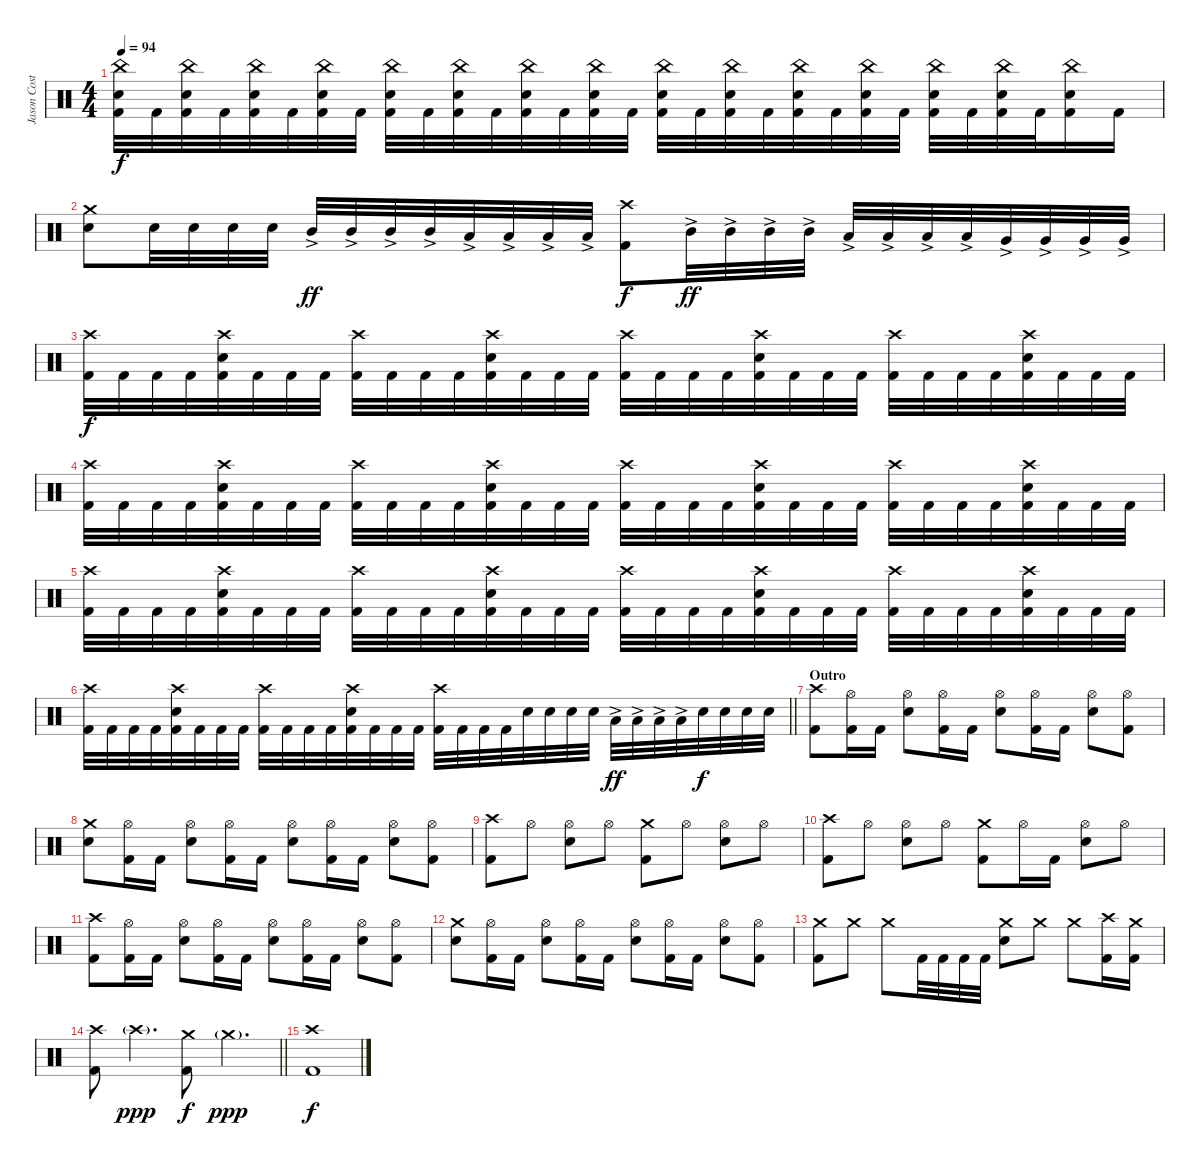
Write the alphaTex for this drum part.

\track ("Jason Costa" "Jason Cost") {instrument percussion}
\staff {score}
\articulation defaults
\ts (4 4)
\tempo 94
\clef neutral
\ks c
("China (hit)" "Snare (hit) 2" "Kick (hit) 2").32{dy f} "Kick (hit) 2".32 ("China (hit)" "Snare (hit) 2" "Kick (hit) 2").32 "Kick (hit) 2".32 ("China (hit)" "Snare (hit) 2" "Kick (hit) 2").32 "Kick (hit) 2".32 ("China (hit)" "Snare (hit) 2" "Kick (hit) 2").32 "Kick (hit) 2".32 ("China (hit)" "Snare (hit) 2" "Kick (hit) 2").32 "Kick (hit) 2".32 ("China (hit)" "Snare (hit) 2" "Kick (hit) 2").32 "Kick (hit) 2".32 ("China (hit)" "Snare (hit) 2" "Kick (hit) 2").32 "Kick (hit) 2".32 ("China (hit)" "Snare (hit) 2" "Kick (hit) 2").32 "Kick (hit) 2".32 ("China (hit)" "Snare (hit) 2" "Kick (hit) 2").32 "Kick (hit) 2".32 ("China (hit)" "Snare (hit) 2" "Kick (hit) 2").32 "Kick (hit) 2".32 ("China (hit)" "Snare (hit) 2" "Kick (hit) 2").32 "Kick (hit) 2".32 ("China (hit)" "Snare (hit) 2" "Kick (hit) 2").32 "Kick (hit) 2".32 ("China (hit)" "Snare (hit) 2" "Kick (hit) 2").32 "Kick (hit) 2".32 ("China (hit)" "Snare (hit) 2" "Kick (hit) 2").32 "Kick (hit) 2".32 ("China (hit)" "Snare (hit) 2" "Kick (hit) 2").16 "Kick (hit) 2".16 |
("Crash medium (hit)" "Snare (hit) 2").8 "Snare (hit) 2".32 "Snare (hit) 2".32 "Snare (hit) 2".32 "Snare (hit) 2".32 "Mid Tom (hit)"{ac}.32{dy ff} "Mid Tom (hit)"{ac}.32 "Mid Tom (hit)"{ac}.32 "Mid Tom (hit)"{ac}.32 "Low Tom (hit)"{ac}.32 "Low Tom (hit)"{ac}.32 "Low Tom (hit)"{ac}.32 "Low Tom (hit)"{ac}.32 ("Crash high (hit)" "Kick (hit) 2").8{dy f} "Mid Tom (hit)"{ac}.32{dy ff} "Mid Tom (hit)"{ac}.32 "Mid Tom (hit)"{ac}.32 "Mid Tom (hit)"{ac}.32 "Low Tom (hit)"{ac}.32 "Low Tom (hit)"{ac}.32 "Low Tom (hit)"{ac}.32 "Low Tom (hit)"{ac}.32 "Very Low Tom (hit)"{ac}.32 "Very Low Tom (hit)"{ac}.32 "Very Low Tom (hit)"{ac}.32 "Very Low Tom (hit)"{ac}.32 |
("Crash high (hit)" "Kick (hit) 2").32{dy f} "Kick (hit) 2".32 "Kick (hit) 2".32 "Kick (hit) 2".32 ("Crash high (hit)" "Snare (hit) 2" "Kick (hit) 2").32 "Kick (hit) 2".32 "Kick (hit) 2".32 "Kick (hit) 2".32 ("Crash high (hit)" "Kick (hit) 2").32 "Kick (hit) 2".32 "Kick (hit) 2".32 "Kick (hit) 2".32 ("Crash high (hit)" "Snare (hit) 2" "Kick (hit) 2").32 "Kick (hit) 2".32 "Kick (hit) 2".32 "Kick (hit) 2".32 ("Crash high (hit)" "Kick (hit) 2").32 "Kick (hit) 2".32 "Kick (hit) 2".32 "Kick (hit) 2".32 ("Crash high (hit)" "Snare (hit) 2" "Kick (hit) 2").32 "Kick (hit) 2".32 "Kick (hit) 2".32 "Kick (hit) 2".32 ("Crash high (hit)" "Kick (hit) 2").32 "Kick (hit) 2".32 "Kick (hit) 2".32 "Kick (hit) 2".32 ("Crash high (hit)" "Snare (hit) 2" "Kick (hit) 2").32 "Kick (hit) 2".32 "Kick (hit) 2".32 "Kick (hit) 2".32 |
("Crash high (hit)" "Kick (hit) 2").32 "Kick (hit) 2".32 "Kick (hit) 2".32 "Kick (hit) 2".32 ("Crash high (hit)" "Snare (hit) 2" "Kick (hit) 2").32 "Kick (hit) 2".32 "Kick (hit) 2".32 "Kick (hit) 2".32 ("Crash high (hit)" "Kick (hit) 2").32 "Kick (hit) 2".32 "Kick (hit) 2".32 "Kick (hit) 2".32 ("Crash high (hit)" "Snare (hit) 2" "Kick (hit) 2").32 "Kick (hit) 2".32 "Kick (hit) 2".32 "Kick (hit) 2".32 ("Crash high (hit)" "Kick (hit) 2").32 "Kick (hit) 2".32 "Kick (hit) 2".32 "Kick (hit) 2".32 ("Crash high (hit)" "Snare (hit) 2" "Kick (hit) 2").32 "Kick (hit) 2".32 "Kick (hit) 2".32 "Kick (hit) 2".32 ("Crash high (hit)" "Kick (hit) 2").32 "Kick (hit) 2".32 "Kick (hit) 2".32 "Kick (hit) 2".32 ("Crash high (hit)" "Snare (hit) 2" "Kick (hit) 2").32 "Kick (hit) 2".32 "Kick (hit) 2".32 "Kick (hit) 2".32 |
("Crash high (hit)" "Kick (hit) 2").32 "Kick (hit) 2".32 "Kick (hit) 2".32 "Kick (hit) 2".32 ("Crash high (hit)" "Snare (hit) 2" "Kick (hit) 2").32 "Kick (hit) 2".32 "Kick (hit) 2".32 "Kick (hit) 2".32 ("Crash high (hit)" "Kick (hit) 2").32 "Kick (hit) 2".32 "Kick (hit) 2".32 "Kick (hit) 2".32 ("Crash high (hit)" "Snare (hit) 2" "Kick (hit) 2").32 "Kick (hit) 2".32 "Kick (hit) 2".32 "Kick (hit) 2".32 ("Crash high (hit)" "Kick (hit) 2").32 "Kick (hit) 2".32 "Kick (hit) 2".32 "Kick (hit) 2".32 ("Crash high (hit)" "Snare (hit) 2" "Kick (hit) 2").32 "Kick (hit) 2".32 "Kick (hit) 2".32 "Kick (hit) 2".32 ("Crash high (hit)" "Kick (hit) 2").32 "Kick (hit) 2".32 "Kick (hit) 2".32 "Kick (hit) 2".32 ("Crash high (hit)" "Snare (hit) 2" "Kick (hit) 2").32 "Kick (hit) 2".32 "Kick (hit) 2".32 "Kick (hit) 2".32 |
\barLineRight lightlight
("Crash high (hit)" "Kick (hit) 2").32 "Kick (hit) 2".32 "Kick (hit) 2".32 "Kick (hit) 2".32 ("Crash high (hit)" "Snare (hit) 2" "Kick (hit) 2").32 "Kick (hit) 2".32 "Kick (hit) 2".32 "Kick (hit) 2".32 ("Crash high (hit)" "Kick (hit) 2").32 "Kick (hit) 2".32 "Kick (hit) 2".32 "Kick (hit) 2".32 ("Crash high (hit)" "Snare (hit) 2" "Kick (hit) 2").32 "Kick (hit) 2".32 "Kick (hit) 2".32 "Kick (hit) 2".32 ("Crash high (hit)" "Kick (hit) 2").32 "Kick (hit) 2".32 "Kick (hit) 2".32 "Kick (hit) 2".32 "Snare (hit) 2".32 "Snare (hit) 2".32 "Snare (hit) 2".32 "Snare (hit) 2".32 "Low Tom (hit)"{ac}.32{dy ff} "Low Tom (hit)"{ac}.32 "Low Tom (hit)"{ac}.32 "Low Tom (hit)"{ac}.32 "Snare (hit) 2".32{dy f} "Snare (hit) 2".32 "Snare (hit) 2".32 "Snare (hit) 2".32 |
\section ("" "Outro")
("Crash high (hit)" "Kick (hit) 2").8 ("Hi-Hat (open)" "Kick (hit) 2").16 "Kick (hit) 2".16 ("Snare (hit) 2" "Hi-Hat (open)").8 ("Hi-Hat (open)" "Kick (hit) 2").16 "Kick (hit) 2".16 ("Snare (hit) 2" "Hi-Hat (open)").8 ("Hi-Hat (open)" "Kick (hit) 2").16 "Kick (hit) 2".16 ("Snare (hit) 2" "Hi-Hat (open)").8 ("Hi-Hat (open)" "Kick (hit) 2").8 |
("Crash medium (hit)" "Snare (hit) 2").8 ("Hi-Hat (open)" "Kick (hit) 2").16 "Kick (hit) 2".16 ("Snare (hit) 2" "Hi-Hat (open)").8 ("Hi-Hat (open)" "Kick (hit) 2").16 "Kick (hit) 2".16 ("Snare (hit) 2" "Hi-Hat (open)").8 ("Hi-Hat (open)" "Kick (hit) 2").16 "Kick (hit) 2".16 ("Snare (hit) 2" "Hi-Hat (open)").8 ("Hi-Hat (open)" "Kick (hit) 2").8 |
("Crash high (hit)" "Kick (hit) 2").8 "Hi-Hat (open)".8 ("Snare (hit) 2" "Hi-Hat (open)").8 "Hi-Hat (open)".8 ("Crash medium (hit)" "Kick (hit) 2").8 "Hi-Hat (open)".8 ("Snare (hit) 2" "Hi-Hat (open)").8 "Hi-Hat (open)".8 |
("Crash high (hit)" "Kick (hit) 2").8 "Hi-Hat (open)".8 ("Snare (hit) 2" "Hi-Hat (open)").8 "Hi-Hat (open)".8 ("Crash medium (hit)" "Kick (hit) 2").8 "Hi-Hat (open)".16 "Kick (hit) 2".16 ("Snare (hit) 2" "Hi-Hat (open)").8 "Hi-Hat (open)".8 |
("Crash high (hit)" "Kick (hit) 2").8 ("Hi-Hat (open)" "Kick (hit) 2").16 "Kick (hit) 2".16 ("Snare (hit) 2" "Hi-Hat (open)").8 ("Hi-Hat (open)" "Kick (hit) 2").16 "Kick (hit) 2".16 ("Snare (hit) 2" "Hi-Hat (open)").8 ("Hi-Hat (open)" "Kick (hit) 2").16 "Kick (hit) 2".16 ("Snare (hit) 2" "Hi-Hat (open)").8 ("Hi-Hat (open)" "Kick (hit) 2").8 |
("Crash medium (hit)" "Snare (hit) 2").8 ("Hi-Hat (open)" "Kick (hit) 2").16 "Kick (hit) 2".16 ("Snare (hit) 2" "Hi-Hat (open)").8 ("Hi-Hat (open)" "Kick (hit) 2").16 "Kick (hit) 2".16 ("Snare (hit) 2" "Hi-Hat (open)").8 ("Hi-Hat (open)" "Kick (hit) 2").16 "Kick (hit) 2".16 ("Snare (hit) 2" "Hi-Hat (open)").8 ("Hi-Hat (open)" "Kick (hit) 2").8 |
("Crash medium (hit)" "Kick (hit) 2").8 "Crash medium (hit)".8 "Crash medium (hit)".8 "Kick (hit) 2".32 "Kick (hit) 2".32 "Kick (hit) 2".32 "Kick (hit) 2".32 ("Crash medium (hit)" "Snare (hit) 2").8 "Crash medium (hit)".8 "Crash medium (hit)".8 ("Crash high (hit)" "Kick (hit) 2").16 ("Crash medium (hit)" "Kick (hit) 2").16 |
\barLineRight lightlight
("Crash high (hit)" "Kick (hit) 2").8 "Crash high (hit)"{g}.4{d dy ppp} ("Crash medium (hit)" "Kick (hit) 2").8{dy f} "Crash medium (hit)"{g}.4{d dy ppp} |
("Crash high (hit)" "Kick (hit) 2").1{dy f}
